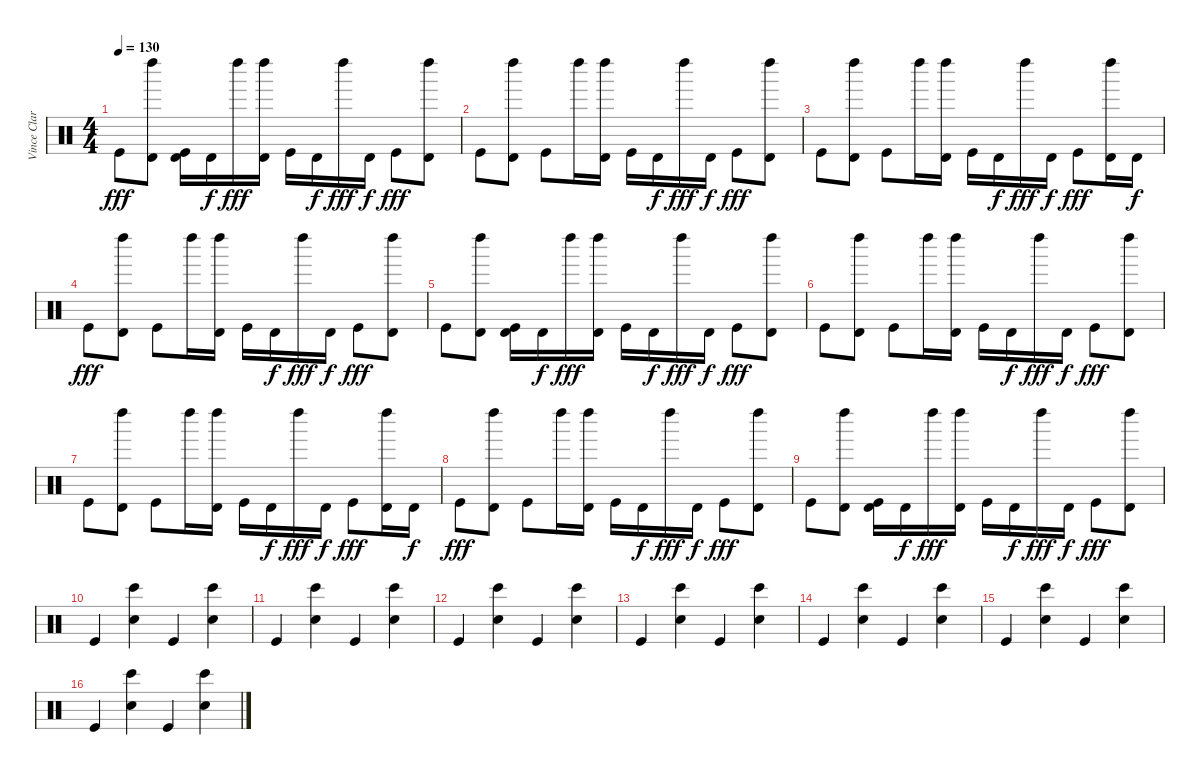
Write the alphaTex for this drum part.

\track ("Vince Clarke" "Vince Clar") {instrument percussion}
\staff {score}
\articulation defaults
\ts (4 4)
\tempo 130
\clef neutral
\ks c "Kick (hit)".8{dy fff}
("Left Maraca (hit)" "Timbale high (hit)").8 ("Kick (hit)" "Timbale high (hit)").16 "Timbale high (hit)".16{dy f} "Left Maraca (hit)".16{dy fff} ("Left Maraca (hit)" "Timbale high (hit)").16 "Kick (hit)".16 "Timbale high (hit)".16{dy f} "Left Maraca (hit)".16{dy fff} "Timbale high (hit)".16{dy f} "Kick (hit)".8{dy fff} ("Left Maraca (hit)" "Timbale high (hit)").8 |
"Kick (hit)".8 ("Left Maraca (hit)" "Timbale high (hit)").8 "Kick (hit)".8 "Left Maraca (hit)".16 ("Left Maraca (hit)" "Timbale high (hit)").16 "Kick (hit)".16 "Timbale high (hit)".16{dy f} "Left Maraca (hit)".16{dy fff} "Timbale high (hit)".16{dy f} "Kick (hit)".8{dy fff} ("Left Maraca (hit)" "Timbale high (hit)").8 |
"Kick (hit)".8 ("Left Maraca (hit)" "Timbale high (hit)").8 "Kick (hit)".8 "Left Maraca (hit)".16 ("Left Maraca (hit)" "Timbale high (hit)").16 "Kick (hit)".16 "Timbale high (hit)".16{dy f} "Left Maraca (hit)".16{dy fff} "Timbale high (hit)".16{dy f} "Kick (hit)".8{dy fff} ("Left Maraca (hit)" "Timbale high (hit)").16 "Timbale high (hit)".16{dy f} |
"Kick (hit)".8{dy fff} ("Left Maraca (hit)" "Timbale high (hit)").8 "Kick (hit)".8 "Left Maraca (hit)".16 ("Left Maraca (hit)" "Timbale high (hit)").16 "Kick (hit)".16 "Timbale high (hit)".16{dy f} "Left Maraca (hit)".16{dy fff} "Timbale high (hit)".16{dy f} "Kick (hit)".8{dy fff} ("Left Maraca (hit)" "Timbale high (hit)").8 |
"Kick (hit)".8 ("Left Maraca (hit)" "Timbale high (hit)").8 ("Kick (hit)" "Timbale high (hit)").16 "Timbale high (hit)".16{dy f} "Left Maraca (hit)".16{dy fff} ("Left Maraca (hit)" "Timbale high (hit)").16 "Kick (hit)".16 "Timbale high (hit)".16{dy f} "Left Maraca (hit)".16{dy fff} "Timbale high (hit)".16{dy f} "Kick (hit)".8{dy fff} ("Left Maraca (hit)" "Timbale high (hit)").8 |
"Kick (hit)".8 ("Left Maraca (hit)" "Timbale high (hit)").8 "Kick (hit)".8 "Left Maraca (hit)".16 ("Left Maraca (hit)" "Timbale high (hit)").16 "Kick (hit)".16 "Timbale high (hit)".16{dy f} "Left Maraca (hit)".16{dy fff} "Timbale high (hit)".16{dy f} "Kick (hit)".8{dy fff} ("Left Maraca (hit)" "Timbale high (hit)").8 |
"Kick (hit)".8 ("Left Maraca (hit)" "Timbale high (hit)").8 "Kick (hit)".8 "Left Maraca (hit)".16 ("Left Maraca (hit)" "Timbale high (hit)").16 "Kick (hit)".16 "Timbale high (hit)".16{dy f} "Left Maraca (hit)".16{dy fff} "Timbale high (hit)".16{dy f} "Kick (hit)".8{dy fff} ("Left Maraca (hit)" "Timbale high (hit)").16 "Timbale high (hit)".16{dy f} |
"Kick (hit)".8{dy fff} ("Left Maraca (hit)" "Timbale high (hit)").8 "Kick (hit)".8 "Left Maraca (hit)".16 ("Left Maraca (hit)" "Timbale high (hit)").16 "Kick (hit)".16 "Timbale high (hit)".16{dy f} "Left Maraca (hit)".16{dy fff} "Timbale high (hit)".16{dy f} "Kick (hit)".8{dy fff} ("Left Maraca (hit)" "Timbale high (hit)").8 |
"Kick (hit)".8 ("Left Maraca (hit)" "Timbale high (hit)").8 ("Kick (hit)" "Timbale high (hit)").16 "Timbale high (hit)".16{dy f} "Left Maraca (hit)".16{dy fff} ("Left Maraca (hit)" "Timbale high (hit)").16 "Kick (hit)".16 "Timbale high (hit)".16{dy f} "Left Maraca (hit)".16{dy fff} "Timbale high (hit)".16{dy f} "Kick (hit)".8{dy fff} ("Left Maraca (hit)" "Timbale high (hit)").8 |
"Kick (hit)".4 ("Snare (hit) 2" "Bongo High (hit)").4 "Kick (hit)".4 ("Snare (hit) 2" "Bongo High (hit)").4 |
"Kick (hit)".4 ("Snare (hit) 2" "Bongo High (hit)").4 "Kick (hit)".4 ("Snare (hit) 2" "Bongo High (hit)").4 |
"Kick (hit)".4 ("Snare (hit) 2" "Bongo High (hit)").4 "Kick (hit)".4 ("Snare (hit) 2" "Bongo High (hit)").4 |
"Kick (hit)".4 ("Snare (hit) 2" "Bongo High (hit)").4 "Kick (hit)".4 ("Snare (hit) 2" "Bongo High (hit)").4 |
"Kick (hit)".4 ("Snare (hit) 2" "Bongo High (hit)").4 "Kick (hit)".4 ("Snare (hit) 2" "Bongo High (hit)").4 |
"Kick (hit)".4 ("Snare (hit) 2" "Bongo High (hit)").4 "Kick (hit)".4 ("Snare (hit) 2" "Bongo High (hit)").4 |
"Kick (hit)".4 ("Snare (hit) 2" "Bongo High (hit)").4 "Kick (hit)".4 ("Snare (hit) 2" "Bongo High (hit)").4
